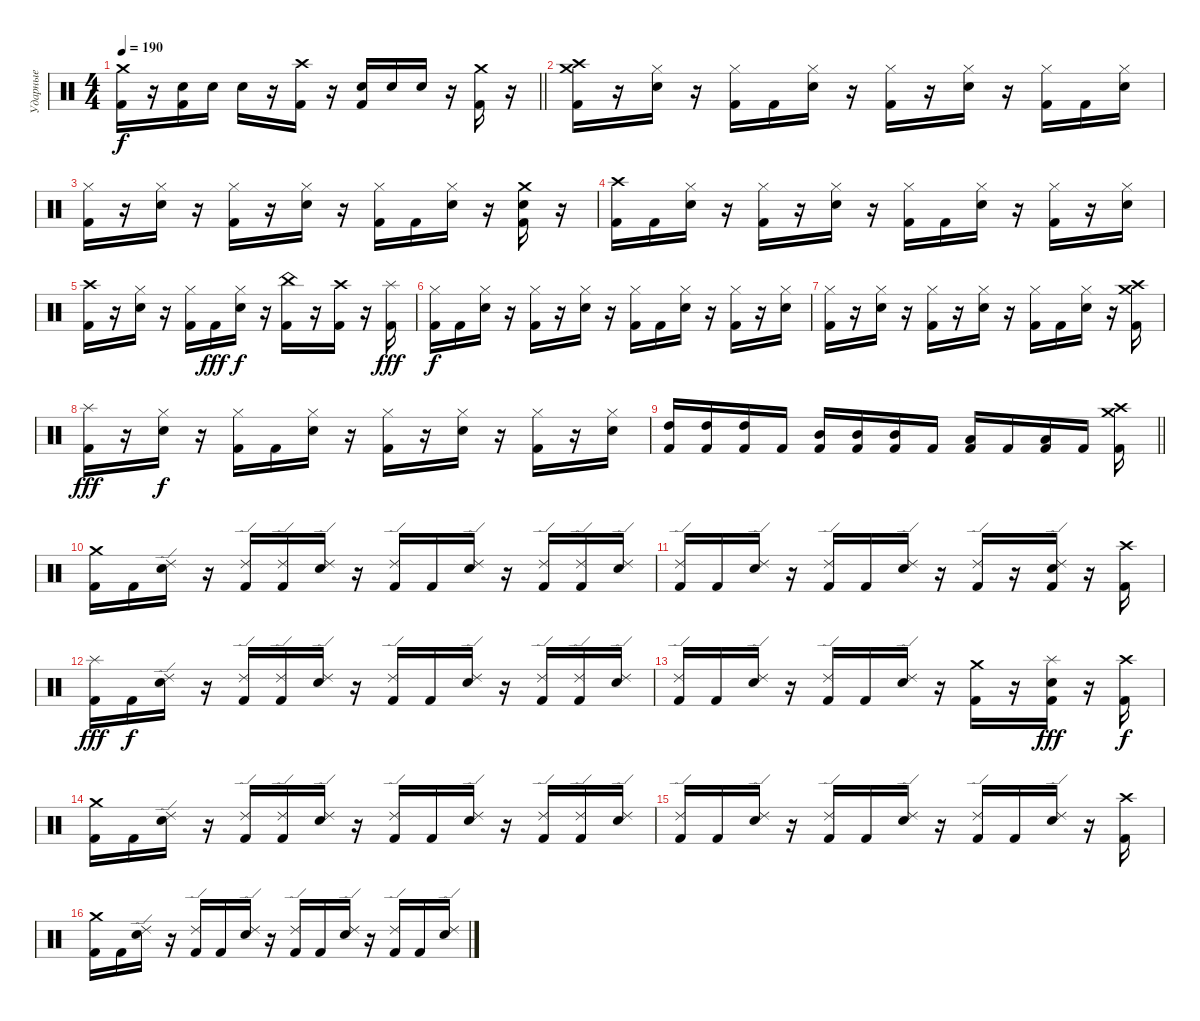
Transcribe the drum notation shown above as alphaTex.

\track ("Ударные" "Ударные") {instrument percussion}
\staff {score}
\articulation defaults
\ts (4 4)
\tempo 190
\clef neutral
\barLineRight lightlight
\ks c
("Crash medium (hit)" "Kick (hit) 2").16{dy f} r.16 ("Snare (hit) 2" "Kick (hit) 2").16 "Snare (hit) 2".16 "Snare (hit) 2".16 r.16 ("Crash high (hit)" "Kick (hit) 2").16 r.16 ("Snare (hit) 2" "Kick (hit) 2").16 "Snare (hit) 2".16 "Snare (hit) 2".16 r.16 ("Crash medium (hit)" "Kick (hit) 2").16 r.16 |
("Crash high (hit)" "Crash medium (hit)" "Kick (hit) 2").16 r.16 ("Hi-Hat (closed)" "Snare (hit) 2").16 r.16 ("Hi-Hat (closed)" "Kick (hit) 2").16 "Kick (hit) 2".16 ("Hi-Hat (closed)" "Snare (hit) 2").16 r.16 ("Hi-Hat (closed)" "Kick (hit) 2").16 r.16 ("Hi-Hat (closed)" "Snare (hit) 2").16 r.16 ("Hi-Hat (closed)" "Kick (hit) 2").16 "Kick (hit) 2".16 ("Hi-Hat (closed)" "Snare (hit) 2").16 |
("Hi-Hat (closed)" "Kick (hit) 2").16 r.16 ("Hi-Hat (closed)" "Snare (hit) 2").16 r.16 ("Hi-Hat (closed)" "Kick (hit) 2").16 r.16 ("Hi-Hat (closed)" "Snare (hit) 2").16 r.16 ("Hi-Hat (closed)" "Kick (hit) 2").16 "Kick (hit) 2".16 ("Hi-Hat (closed)" "Snare (hit) 2").16 r.16 ("Crash medium (hit)" "Snare (hit) 2" "Kick (hit) 2").16 r.16 |
("Crash high (hit)" "Kick (hit) 2").16 "Kick (hit) 2".16 ("Hi-Hat (closed)" "Snare (hit) 2").16 r.16 ("Hi-Hat (closed)" "Kick (hit) 2").16 r.16 ("Hi-Hat (closed)" "Snare (hit) 2").16 r.16 ("Hi-Hat (closed)" "Kick (hit) 2").16 "Kick (hit) 2".16 ("Hi-Hat (closed)" "Snare (hit) 2").16 r.16 ("Hi-Hat (closed)" "Kick (hit) 2").16 r.16 ("Hi-Hat (closed)" "Snare (hit) 2").16 |
("Crash high (hit)" "Kick (hit) 2").16 r.16 ("Hi-Hat (closed)" "Snare (hit) 2").16 r.16 ("Hi-Hat (closed)" "Kick (hit) 2").16 "Kick (hit) 2".16{dy fff} ("Hi-Hat (closed)" "Snare (hit) 2").16{dy f} r.16 ("China (hit)" "Kick (hit) 2").16 r.16 ("Crash high (hit)" "Kick (hit) 2").16 r.16 ("Splash (hit)" "Kick (hit) 2").16{dy fff} |
("Hi-Hat (closed)" "Kick (hit) 2").16{dy f} "Kick (hit) 2".16 ("Hi-Hat (closed)" "Snare (hit) 2").16 r.16 ("Hi-Hat (closed)" "Kick (hit) 2").16 r.16 ("Hi-Hat (closed)" "Snare (hit) 2").16 r.16 ("Hi-Hat (closed)" "Kick (hit) 2").16 "Kick (hit) 2".16 ("Hi-Hat (closed)" "Snare (hit) 2").16 r.16 ("Hi-Hat (closed)" "Kick (hit) 2").16 r.16 ("Hi-Hat (closed)" "Snare (hit) 2").16 |
("Hi-Hat (closed)" "Kick (hit) 2").16 r.16 ("Hi-Hat (closed)" "Snare (hit) 2").16 r.16 ("Hi-Hat (closed)" "Kick (hit) 2").16 r.16 ("Hi-Hat (closed)" "Snare (hit) 2").16 r.16 ("Hi-Hat (closed)" "Kick (hit) 2").16 "Kick (hit) 2".16 ("Hi-Hat (closed)" "Snare (hit) 2").16 r.16 ("Crash high (hit)" "Crash medium (hit)" "Kick (hit) 2").16 |
("Splash (hit)" "Kick (hit) 2").16{dy fff} r.16 ("Hi-Hat (closed)" "Snare (hit) 2").16{dy f} r.16 ("Hi-Hat (closed)" "Kick (hit) 2").16 "Kick (hit) 2".16 ("Hi-Hat (closed)" "Snare (hit) 2").16 r.16 ("Hi-Hat (closed)" "Kick (hit) 2").16 r.16 ("Hi-Hat (closed)" "Snare (hit) 2").16 r.16 ("Hi-Hat (closed)" "Kick (hit) 2").16 r.16 ("Hi-Hat (closed)" "Snare (hit) 2").16 |
\barLineRight lightlight
("High Tom (hit)" "Kick (hit) 2").16 ("High Tom (hit)" "Kick (hit) 2").16 ("High Tom (hit)" "Kick (hit) 2").16 "Kick (hit) 2".16 ("Mid Tom (hit)" "Kick (hit) 2").16 ("Mid Tom (hit)" "Kick (hit) 2").16 ("Mid Tom (hit)" "Kick (hit) 2").16 "Kick (hit) 2".16 ("Low Tom (hit)" "Kick (hit) 2").16 "Kick (hit) 2".16 ("Low Tom (hit)" "Kick (hit) 2").16 "Kick (hit) 2".16 ("Crash medium (hit)" "Crash high (hit)" "Kick (hit) 2").16 |
("Crash medium (hit)" "Kick (hit) 2").16 "Kick (hit) 2".16 ("Ride (edge) 2" "Snare (hit) 2").16 r.16 ("Ride (edge) 2" "Kick (hit) 2").16 ("Ride (edge) 2" "Kick (hit) 2").16 ("Ride (edge) 2" "Snare (hit) 2").16 r.16 ("Ride (edge) 2" "Kick (hit) 2").16 "Kick (hit) 2".16 ("Ride (edge) 2" "Snare (hit) 2").16 r.16 ("Ride (edge) 2" "Kick (hit) 2").16 ("Ride (edge) 2" "Kick (hit) 2").16 ("Ride (edge) 2" "Snare (hit) 2").16 |
("Ride (edge) 2" "Kick (hit) 2").16 "Kick (hit) 2".16 ("Ride (edge) 2" "Snare (hit) 2").16 r.16 ("Ride (edge) 2" "Kick (hit) 2").16 "Kick (hit) 2".16 ("Ride (edge) 2" "Snare (hit) 2").16 r.16 ("Ride (edge) 2" "Kick (hit) 2").16 r.16 ("Ride (edge) 2" "Snare (hit) 2" "Kick (hit) 2").16 r.16 ("Crash high (hit)" "Kick (hit) 2").16 |
("Splash (hit)" "Kick (hit) 2").16{dy fff} "Kick (hit) 2".16{dy f} ("Ride (edge) 2" "Snare (hit) 2").16 r.16 ("Ride (edge) 2" "Kick (hit) 2").16 ("Ride (edge) 2" "Kick (hit) 2").16 ("Ride (edge) 2" "Snare (hit) 2").16 r.16 ("Ride (edge) 2" "Kick (hit) 2").16 "Kick (hit) 2".16 ("Ride (edge) 2" "Snare (hit) 2").16 r.16 ("Ride (edge) 2" "Kick (hit) 2").16 ("Ride (edge) 2" "Kick (hit) 2").16 ("Ride (edge) 2" "Snare (hit) 2").16 |
("Ride (edge) 2" "Kick (hit) 2").16 "Kick (hit) 2".16 ("Ride (edge) 2" "Snare (hit) 2").16 r.16 ("Ride (edge) 2" "Kick (hit) 2").16 "Kick (hit) 2".16 ("Ride (edge) 2" "Snare (hit) 2").16 r.16 ("Crash medium (hit)" "Kick (hit) 2").16 r.16 ("Splash (hit)" "Snare (hit) 2" "Kick (hit) 2").16{dy fff} r.16 ("Crash high (hit)" "Kick (hit) 2").16{dy f} |
("Crash medium (hit)" "Kick (hit) 2").16 "Kick (hit) 2".16 ("Ride (edge) 2" "Snare (hit) 2").16 r.16 ("Ride (edge) 2" "Kick (hit) 2").16 ("Ride (edge) 2" "Kick (hit) 2").16 ("Ride (edge) 2" "Snare (hit) 2").16 r.16 ("Ride (edge) 2" "Kick (hit) 2").16 "Kick (hit) 2".16 ("Ride (edge) 2" "Snare (hit) 2").16 r.16 ("Ride (edge) 2" "Kick (hit) 2").16 ("Ride (edge) 2" "Kick (hit) 2").16 ("Ride (edge) 2" "Snare (hit) 2").16 |
("Ride (edge) 2" "Kick (hit) 2").16 "Kick (hit) 2".16 ("Ride (edge) 2" "Snare (hit) 2").16 r.16 ("Ride (edge) 2" "Kick (hit) 2").16 "Kick (hit) 2".16 ("Ride (edge) 2" "Snare (hit) 2").16 r.16 ("Ride (edge) 2" "Kick (hit) 2").16 "Kick (hit) 2".16 ("Ride (edge) 2" "Snare (hit) 2").16 r.16 ("Crash high (hit)" "Kick (hit) 2").16 |
("Crash medium (hit)" "Kick (hit) 2").16 "Kick (hit) 2".16 ("Ride (edge) 2" "Snare (hit) 2").16 r.16 ("Ride (edge) 2" "Kick (hit) 2").16 "Kick (hit) 2".16 ("Ride (edge) 2" "Snare (hit) 2").16 r.16 ("Ride (edge) 2" "Kick (hit) 2").16 "Kick (hit) 2".16 ("Ride (edge) 2" "Snare (hit) 2").16 r.16 ("Ride (edge) 2" "Kick (hit) 2").16 "Kick (hit) 2".16 ("Ride (edge) 2" "Snare (hit) 2").16
